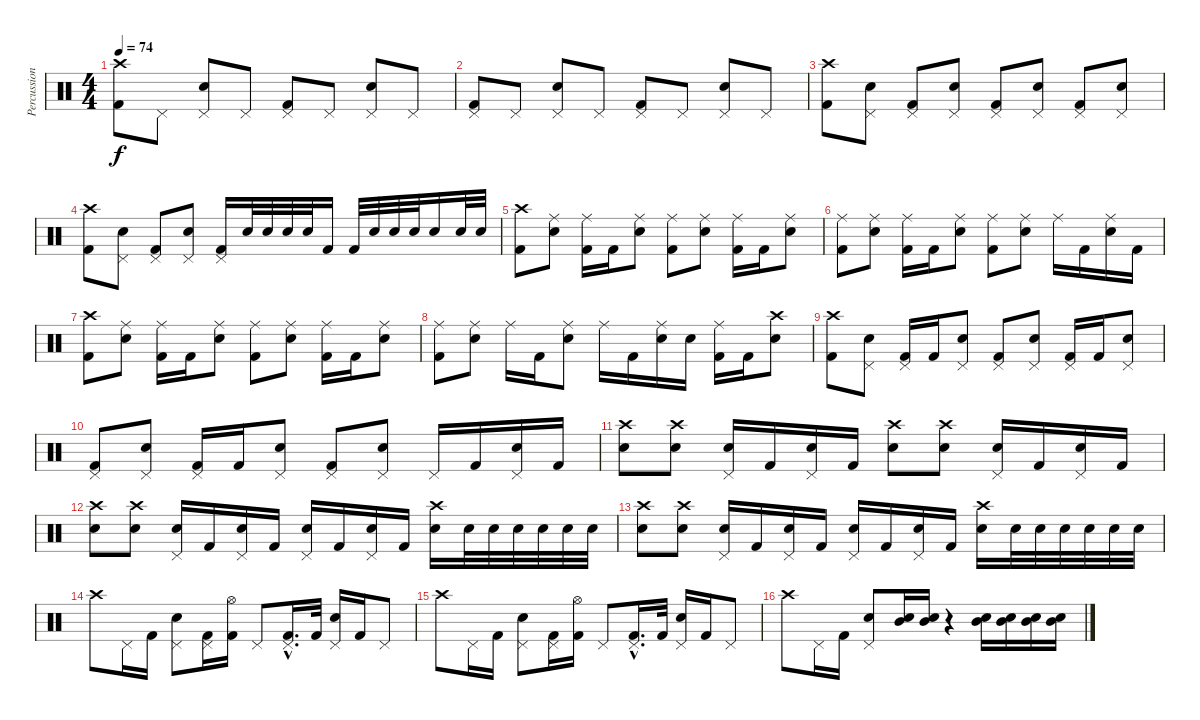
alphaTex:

\track ("Percussion" "Percussion") {instrument percussion}
\staff {score}
\articulation defaults
\ts (4 4)
\tempo 74
\clef neutral
\ks c
("Crash high (hit)" "Kick (hit) 2").8{dy f} "Pedal Hi-Hat (hit)".8 ("Pedal Hi-Hat (hit)" "Snare (hit) 2").8 "Pedal Hi-Hat (hit)".8 ("Pedal Hi-Hat (hit)" "Kick (hit) 2").8 "Pedal Hi-Hat (hit)".8 ("Pedal Hi-Hat (hit)" "Snare (hit) 2").8 "Pedal Hi-Hat (hit)".8 |
("Pedal Hi-Hat (hit)" "Kick (hit) 2").8 "Pedal Hi-Hat (hit)".8 ("Pedal Hi-Hat (hit)" "Snare (hit) 2").8 "Pedal Hi-Hat (hit)".8 ("Pedal Hi-Hat (hit)" "Kick (hit) 2").8 "Pedal Hi-Hat (hit)".8 ("Pedal Hi-Hat (hit)" "Snare (hit) 2").8 "Pedal Hi-Hat (hit)".8 |
("Crash high (hit)" "Kick (hit) 2").8 ("Pedal Hi-Hat (hit)" "Snare (hit) 2").8 ("Pedal Hi-Hat (hit)" "Kick (hit) 2").8 ("Pedal Hi-Hat (hit)" "Snare (hit) 2").8 ("Pedal Hi-Hat (hit)" "Kick (hit) 2").8 ("Pedal Hi-Hat (hit)" "Snare (hit) 2").8 ("Pedal Hi-Hat (hit)" "Kick (hit) 2").8 ("Pedal Hi-Hat (hit)" "Snare (hit) 2").8 |
("Crash high (hit)" "Kick (hit) 2").8 ("Pedal Hi-Hat (hit)" "Snare (hit) 2").8 ("Pedal Hi-Hat (hit)" "Kick (hit) 2").8 ("Pedal Hi-Hat (hit)" "Snare (hit) 2").8 ("Pedal Hi-Hat (hit)" "Kick (hit) 2").16 "Snare (hit) 2".32 "Snare (hit) 2".32 "Snare (hit) 2".32 "Snare (hit) 2".32 "Kick (hit) 2".16 "Kick (hit) 2".32 "Snare (hit) 2".32 "Snare (hit) 2".32 "Snare (hit) 2".32 "Snare (hit) 2".16 "Snare (hit) 2".32 "Snare (hit) 2".32 |
("Crash high (hit)" "Kick (hit) 2").8 ("Ride (middle)" "Snare (hit) 2").8 ("Ride (middle)" "Kick (hit) 2").16 "Kick (hit) 2".16 ("Ride (middle)" "Snare (hit) 2").8 ("Ride (middle)" "Kick (hit) 2").8 ("Ride (middle)" "Snare (hit) 2").8 ("Ride (middle)" "Kick (hit) 2").16 "Kick (hit) 2".16 ("Ride (middle)" "Snare (hit) 2").8 |
("Ride (middle)" "Kick (hit) 2").8 ("Ride (middle)" "Snare (hit) 2").8 ("Ride (middle)" "Kick (hit) 2").16 "Kick (hit) 2".16 ("Ride (middle)" "Snare (hit) 2").8 ("Ride (middle)" "Kick (hit) 2").8 ("Ride (middle)" "Snare (hit) 2").8 "Ride (middle)".16 "Kick (hit) 2".16 ("Ride (middle)" "Snare (hit) 2").16 "Kick (hit) 2".16 |
("Crash high (hit)" "Kick (hit) 2").8 ("Ride (middle)" "Snare (hit) 2").8 ("Ride (middle)" "Kick (hit) 2").16 "Kick (hit) 2".16 ("Ride (middle)" "Snare (hit) 2").8 ("Ride (middle)" "Kick (hit) 2").8 ("Ride (middle)" "Snare (hit) 2").8 ("Ride (middle)" "Kick (hit) 2").16 "Kick (hit) 2".16 ("Ride (middle)" "Snare (hit) 2").8 |
("Ride (middle)" "Kick (hit) 2").8 ("Ride (middle)" "Snare (hit) 2").8 "Ride (middle)".16 "Kick (hit) 2".16 ("Ride (middle)" "Snare (hit) 2").8 "Ride (middle)".16 "Kick (hit) 2".16 ("Ride (middle)" "Snare (hit) 2").16 "Snare (hit) 2".16 ("Ride (middle)" "Kick (hit) 2").16 "Kick (hit) 2".16 ("Crash high (hit)" "Snare (hit) 2").8 |
("Crash high (hit)" "Kick (hit) 2").8 ("Pedal Hi-Hat (hit)" "Snare (hit) 2").8 ("Pedal Hi-Hat (hit)" "Kick (hit) 2").16 "Kick (hit) 2".16 ("Pedal Hi-Hat (hit)" "Snare (hit) 2").8 ("Pedal Hi-Hat (hit)" "Kick (hit) 2").8 ("Pedal Hi-Hat (hit)" "Snare (hit) 2").8 ("Pedal Hi-Hat (hit)" "Kick (hit) 2").16 "Kick (hit) 2".16 ("Pedal Hi-Hat (hit)" "Snare (hit) 2").8 |
("Pedal Hi-Hat (hit)" "Kick (hit) 2").8 ("Pedal Hi-Hat (hit)" "Snare (hit) 2").8 ("Pedal Hi-Hat (hit)" "Kick (hit) 2").16 "Kick (hit) 2".16 ("Pedal Hi-Hat (hit)" "Snare (hit) 2").8 ("Pedal Hi-Hat (hit)" "Kick (hit) 2").8 ("Pedal Hi-Hat (hit)" "Snare (hit) 2").8 "Pedal Hi-Hat (hit)".16 "Kick (hit) 2".16 ("Pedal Hi-Hat (hit)" "Snare (hit) 2").16 "Kick (hit) 2".16 |
("Crash high (hit)" "Snare (hit) 2").8 ("Crash high (hit)" "Snare (hit) 2").8 ("Pedal Hi-Hat (hit)" "Snare (hit) 2").16 "Kick (hit) 2".16 ("Pedal Hi-Hat (hit)" "Snare (hit) 2").16 "Kick (hit) 2".16 ("Crash high (hit)" "Snare (hit) 2").8 ("Crash high (hit)" "Snare (hit) 2").8 ("Pedal Hi-Hat (hit)" "Snare (hit) 2").16 "Kick (hit) 2".16 ("Pedal Hi-Hat (hit)" "Snare (hit) 2").16 "Kick (hit) 2".16 |
("Crash high (hit)" "Snare (hit) 2").8 ("Crash high (hit)" "Snare (hit) 2").8 ("Pedal Hi-Hat (hit)" "Snare (hit) 2").16 "Kick (hit) 2".16 ("Pedal Hi-Hat (hit)" "Snare (hit) 2").16 "Kick (hit) 2".16 ("Pedal Hi-Hat (hit)" "Snare (hit) 2").16 "Kick (hit) 2".16 ("Pedal Hi-Hat (hit)" "Snare (hit) 2").16 "Kick (hit) 2".16 ("Crash high (hit)" "Snare (hit) 2").16 "Snare (hit) 2".32 "Snare (hit) 2".32 "Snare (hit) 2".32 "Snare (hit) 2".32 "Snare (hit) 2".32 "Snare (hit) 2".32 |
("Crash high (hit)" "Snare (hit) 2").8 ("Crash high (hit)" "Snare (hit) 2").8 ("Pedal Hi-Hat (hit)" "Snare (hit) 2").16 "Kick (hit) 2".16 ("Pedal Hi-Hat (hit)" "Snare (hit) 2").16 "Kick (hit) 2".16 ("Pedal Hi-Hat (hit)" "Snare (hit) 2").16 "Kick (hit) 2".16 ("Pedal Hi-Hat (hit)" "Snare (hit) 2").16 "Kick (hit) 2".16 ("Crash high (hit)" "Snare (hit) 2").16 "Snare (hit) 2".32 "Snare (hit) 2".32 "Snare (hit) 2".32 "Snare (hit) 2".32 "Snare (hit) 2".32 "Snare (hit) 2".32 |
"Crash high (hit)".8 "Pedal Hi-Hat (hit)".16 "Kick (hit) 2".16 ("Pedal Hi-Hat (hit)" "Snare (hit) 2").8 ("Pedal Hi-Hat (hit)" "Kick (hit) 2").16 ("Hi-Hat (open)" "Kick (hit) 2").16 "Pedal Hi-Hat (hit)".8 ("Pedal Hi-Hat (hit)"{hac} "Kick (hit) 2"{hac}).16{d} "Kick (hit) 2".32 ("Pedal Hi-Hat (hit)" "Snare (hit) 2").16 "Kick (hit) 2".16 "Pedal Hi-Hat (hit)".8 |
"Crash high (hit)".8 "Pedal Hi-Hat (hit)".16 "Kick (hit) 2".16 ("Pedal Hi-Hat (hit)" "Snare (hit) 2").8 ("Pedal Hi-Hat (hit)" "Kick (hit) 2").16 ("Hi-Hat (open)" "Kick (hit) 2").16 "Pedal Hi-Hat (hit)".8 ("Pedal Hi-Hat (hit)"{hac} "Kick (hit) 2"{hac}).16{d} "Kick (hit) 2".32 ("Pedal Hi-Hat (hit)" "Snare (hit) 2").16 "Kick (hit) 2".16 "Pedal Hi-Hat (hit)".8 |
"Crash high (hit)".8 "Pedal Hi-Hat (hit)".16 "Kick (hit) 2".16 ("Pedal Hi-Hat (hit)" "Snare (hit) 2").8 ("Mid Tom (hit)" "Snare (hit) 2").16 ("Mid Tom (hit)" "Snare (hit) 2").16 r.4 ("Mid Tom (hit)" "Snare (hit) 2").16 ("Mid Tom (hit)" "Snare (hit) 2").16 ("Mid Tom (hit)" "Snare (hit) 2").16 ("Mid Tom (hit)" "Snare (hit) 2").16
